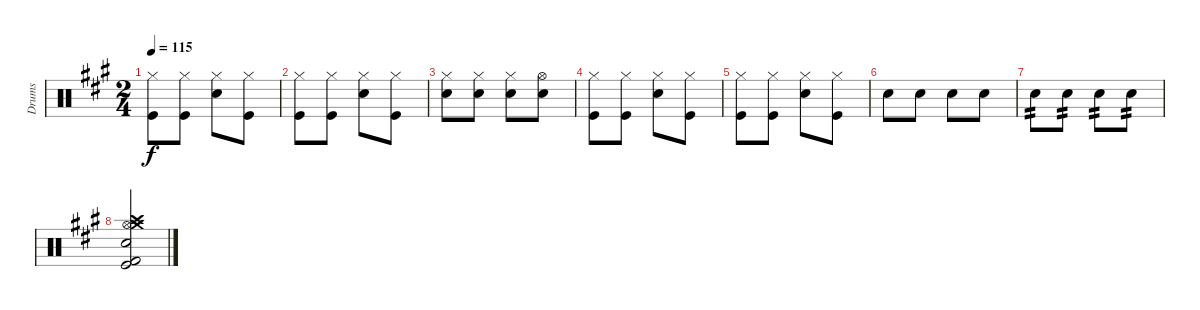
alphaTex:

\track ("Drums" "Drums") {instrument percussion}
\staff {score}
\articulation defaults
\ts (2 4)
\tempo 115
\clef neutral
\ks f#minor
("Hi-Hat (closed)" "Kick (hit)").8{dy f} ("Hi-Hat (closed)" "Kick (hit)").8 ("Hi-Hat (closed)" "Electric Snare (hit)").8 ("Hi-Hat (closed)" "Kick (hit)").8 |
("Hi-Hat (closed)" "Kick (hit)").8 ("Hi-Hat (closed)" "Kick (hit)").8 ("Hi-Hat (closed)" "Electric Snare (hit)").8 ("Hi-Hat (closed)" "Kick (hit)").8 |
("Hi-Hat (closed)" "Electric Snare (hit)").8 ("Hi-Hat (closed)" "Electric Snare (hit)").8 ("Hi-Hat (closed)" "Electric Snare (hit)").8 ("Hi-Hat (open)" "Electric Snare (hit)").8 |
("Hi-Hat (closed)" "Kick (hit)").8 ("Hi-Hat (closed)" "Kick (hit)").8 ("Hi-Hat (closed)" "Electric Snare (hit)").8 ("Hi-Hat (closed)" "Kick (hit)").8 |
("Hi-Hat (closed)" "Kick (hit)").8 ("Hi-Hat (closed)" "Kick (hit)").8 ("Hi-Hat (closed)" "Electric Snare (hit)").8 ("Hi-Hat (closed)" "Kick (hit)").8 |
"Electric Snare (hit)".8 "Electric Snare (hit)".8 "Electric Snare (hit)".8 "Electric Snare (hit)".8 |
"Electric Snare (hit)".8{tp 2} "Electric Snare (hit)".8{tp 2} "Electric Snare (hit)".8{tp 2} "Electric Snare (hit)".8{tp 2} |
("Hi-Hat (open)" "Crash high (hit)" "Crash medium (hit)" "Electric Snare (hit)" "Kick (hit)" "Kick (hit) 2").2
